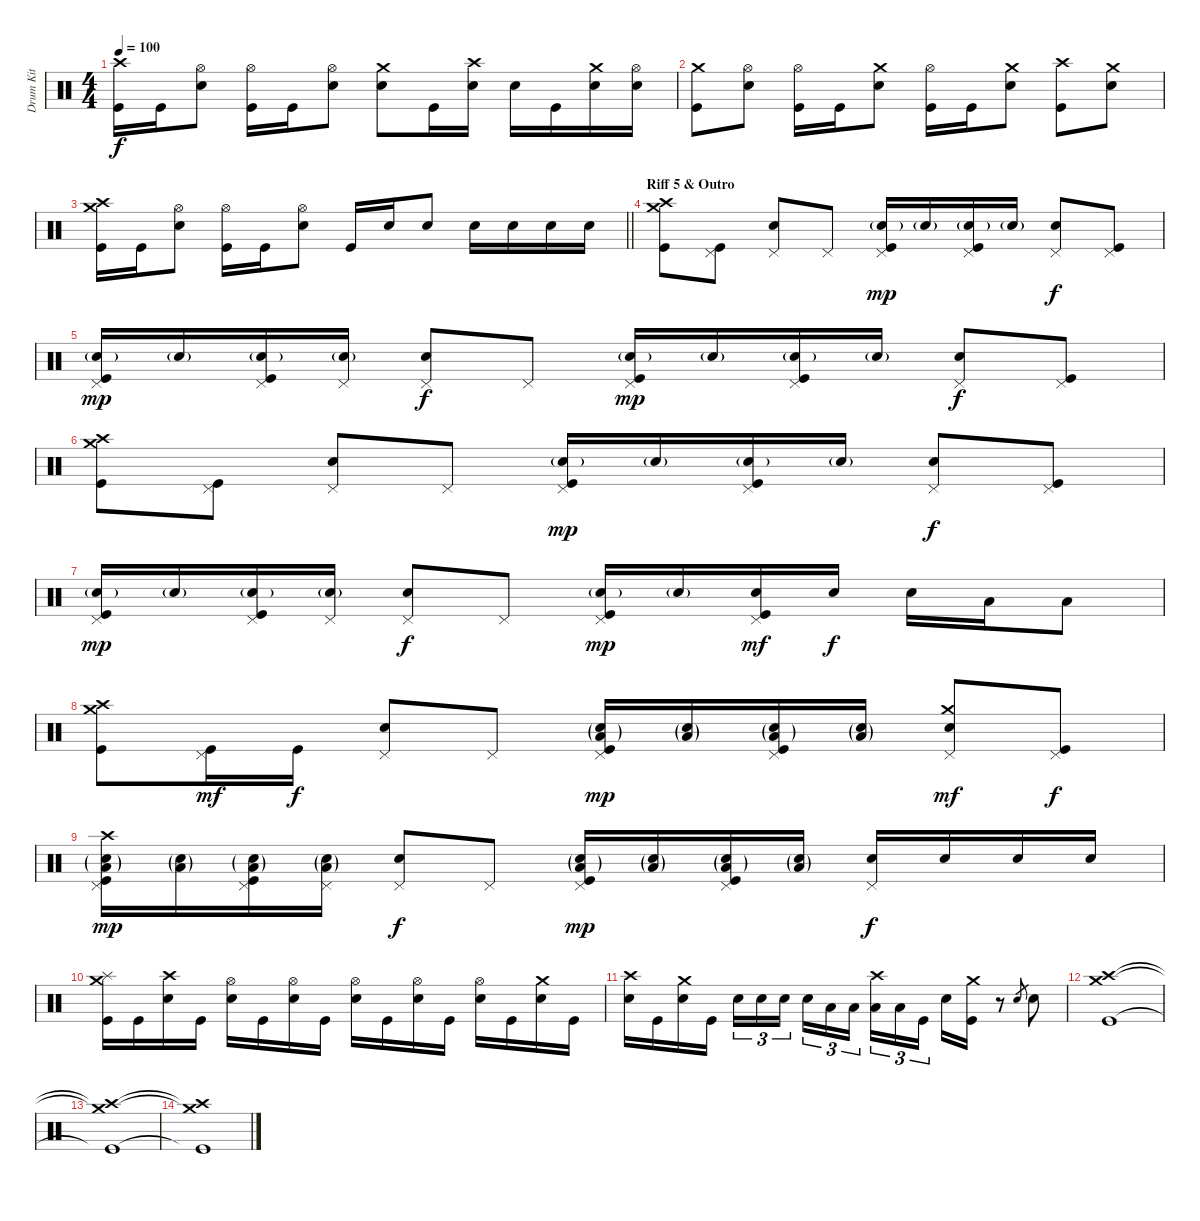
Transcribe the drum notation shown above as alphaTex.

\track ("Drum Kit" "Drum Kit") {instrument percussion}
\staff {score}
\articulation defaults
\ts (4 4)
\tempo 100
\clef neutral
\ks c
("Crash high (hit)" "Kick (hit)").16{dy f} "Kick (hit)".16 ("Hi-Hat (open)" "Electric Snare (hit)").8 ("Hi-Hat (open)" "Kick (hit)").16 "Kick (hit)".16 ("Hi-Hat (open)" "Electric Snare (hit)").8 ("Crash medium (hit)" "Electric Snare (hit)").8 "Kick (hit)".16 ("Crash high (hit)" "Electric Snare (hit)").16 "Electric Snare (hit)".16 "Kick (hit)".16 ("Crash medium (hit)" "Electric Snare (hit)").16 ("Hi-Hat (open)" "Electric Snare (hit)").16 |
("Crash medium (hit)" "Kick (hit)").8 ("Hi-Hat (open)" "Electric Snare (hit)").8 ("Hi-Hat (open)" "Kick (hit)").16 "Kick (hit)".16 ("Crash medium (hit)" "Electric Snare (hit)").8 ("Hi-Hat (open)" "Kick (hit)").16 "Kick (hit)".16 ("Crash medium (hit)" "Electric Snare (hit)").8 ("Crash high (hit)" "Kick (hit)").8 ("Crash medium (hit)" "Electric Snare (hit)").8 |
\barLineRight lightlight
("Crash high (hit)" "Crash medium (hit)" "Kick (hit)").16 "Kick (hit)".16 ("Hi-Hat (open)" "Electric Snare (hit)").8 ("Hi-Hat (open)" "Kick (hit)").16 "Kick (hit)".16 ("Hi-Hat (open)" "Electric Snare (hit)").8 "Kick (hit)".16 "Electric Snare (hit)".16 "Electric Snare (hit)".8 "Electric Snare (hit)".16 "Electric Snare (hit)".16 "Electric Snare (hit)".16 "Electric Snare (hit)".16 |
\section ("" "Riff 5 & Outro")
("Crash high (hit)" "Crash medium (hit)" "Kick (hit)").8 ("Pedal Hi-Hat (hit)" "Kick (hit)").8 ("Pedal Hi-Hat (hit)" "Electric Snare (hit)").8 "Pedal Hi-Hat (hit)".8 ("Pedal Hi-Hat (hit)" "Electric Snare (hit)"{g} "Kick (hit)").16{dy mp} "Electric Snare (hit)"{g}.16 ("Pedal Hi-Hat (hit)" "Electric Snare (hit)"{g} "Kick (hit)").16 "Electric Snare (hit)"{g}.16 ("Pedal Hi-Hat (hit)" "Electric Snare (hit)").8{dy f} ("Pedal Hi-Hat (hit)" "Kick (hit)").8 |
("Pedal Hi-Hat (hit)" "Electric Snare (hit)"{g} "Kick (hit)").16{dy mp} "Electric Snare (hit)"{g}.16 ("Pedal Hi-Hat (hit)" "Electric Snare (hit)"{g} "Kick (hit)").16 ("Pedal Hi-Hat (hit)" "Electric Snare (hit)"{g}).16 ("Pedal Hi-Hat (hit)" "Electric Snare (hit)").8{dy f} "Pedal Hi-Hat (hit)".8 ("Pedal Hi-Hat (hit)" "Electric Snare (hit)"{g} "Kick (hit)").16{dy mp} "Electric Snare (hit)"{g}.16 ("Pedal Hi-Hat (hit)" "Electric Snare (hit)"{g} "Kick (hit)").16 "Electric Snare (hit)"{g}.16 ("Pedal Hi-Hat (hit)" "Electric Snare (hit)").8{dy f} ("Pedal Hi-Hat (hit)" "Kick (hit)").8 |
("Crash high (hit)" "Crash medium (hit)" "Kick (hit)").8 ("Pedal Hi-Hat (hit)" "Kick (hit)").8 ("Pedal Hi-Hat (hit)" "Electric Snare (hit)").8 "Pedal Hi-Hat (hit)".8 ("Pedal Hi-Hat (hit)" "Electric Snare (hit)"{g} "Kick (hit)").16{dy mp} "Electric Snare (hit)"{g}.16 ("Pedal Hi-Hat (hit)" "Electric Snare (hit)"{g} "Kick (hit)").16 "Electric Snare (hit)"{g}.16 ("Pedal Hi-Hat (hit)" "Electric Snare (hit)").8{dy f} ("Pedal Hi-Hat (hit)" "Kick (hit)").8 |
("Pedal Hi-Hat (hit)" "Electric Snare (hit)"{g} "Kick (hit)").16{dy mp} "Electric Snare (hit)"{g}.16 ("Pedal Hi-Hat (hit)" "Electric Snare (hit)"{g} "Kick (hit)").16 ("Pedal Hi-Hat (hit)" "Electric Snare (hit)"{g}).16 ("Pedal Hi-Hat (hit)" "Electric Snare (hit)").8{dy f} "Pedal Hi-Hat (hit)".8 ("Pedal Hi-Hat (hit)" "Electric Snare (hit)"{g} "Kick (hit)").16{dy mp} "Electric Snare (hit)"{g}.16 ("Pedal Hi-Hat (hit)" "Electric Snare (hit)" "Kick (hit)").16{dy mf} "Electric Snare (hit)".16{dy f} "Electric Snare (hit)".16 "Low Tom (hit)".16 "Low Tom (hit)".8 |
("Crash high (hit)" "Crash medium (hit)" "Kick (hit)").8 ("Pedal Hi-Hat (hit)" "Kick (hit)").16{dy mf} "Kick (hit)".16{dy f} ("Pedal Hi-Hat (hit)" "Electric Snare (hit)").8 "Pedal Hi-Hat (hit)".8 ("Pedal Hi-Hat (hit)" "Electric Snare (hit)"{g} "Low Tom (hit)"{g} "Kick (hit)").16{dy mp} ("Electric Snare (hit)"{g} "Low Tom (hit)"{g}).16 ("Pedal Hi-Hat (hit)" "Electric Snare (hit)"{g} "Low Tom (hit)"{g} "Kick (hit)").16 ("Electric Snare (hit)"{g} "Low Tom (hit)"{g}).16 ("Crash medium (hit)" "Pedal Hi-Hat (hit)" "Electric Snare (hit)").8{dy mf} ("Pedal Hi-Hat (hit)" "Kick (hit)").8{dy f} |
("Crash high (hit)" "Pedal Hi-Hat (hit)" "Electric Snare (hit)"{g} "Low Tom (hit)"{g} "Kick (hit)").16{dy mp} ("Electric Snare (hit)"{g} "Low Tom (hit)"{g}).16 ("Pedal Hi-Hat (hit)" "Electric Snare (hit)"{g} "Low Tom (hit)"{g} "Kick (hit)").16 ("Pedal Hi-Hat (hit)" "Electric Snare (hit)"{g} "Low Tom (hit)"{g}).16 ("Pedal Hi-Hat (hit)" "Electric Snare (hit)").8{dy f} "Pedal Hi-Hat (hit)".8 ("Pedal Hi-Hat (hit)" "Electric Snare (hit)"{g} "Low Tom (hit)"{g} "Kick (hit)").16{dy mp} ("Electric Snare (hit)"{g} "Low Tom (hit)"{g}).16 ("Pedal Hi-Hat (hit)" "Electric Snare (hit)"{g} "Low Tom (hit)"{g} "Kick (hit)").16 ("Electric Snare (hit)"{g} "Low Tom (hit)"{g}).16 ("Pedal Hi-Hat (hit)" "Electric Snare (hit)").16{dy f} "Electric Snare (hit)".16 "Electric Snare (hit)".16 "Electric Snare (hit)".16 |
("Crash medium (hit)" "Splash (hit)" "Kick (hit)").16 "Kick (hit)".16 ("Crash high (hit)" "Electric Snare (hit)").16 "Kick (hit)".16 ("Hi-Hat (open)" "Electric Snare (hit)").16 "Kick (hit)".16 ("Hi-Hat (open)" "Electric Snare (hit)").16 "Kick (hit)".16 ("Hi-Hat (open)" "Electric Snare (hit)").16 "Kick (hit)".16 ("Hi-Hat (open)" "Electric Snare (hit)").16 "Kick (hit)".16 ("Hi-Hat (open)" "Electric Snare (hit)").16 "Kick (hit)".16 ("Crash medium (hit)" "Electric Snare (hit)").16 "Kick (hit)".16 |
("Crash high (hit)" "Electric Snare (hit)").16 "Kick (hit)".16 ("Crash medium (hit)" "Electric Snare (hit)").16 "Kick (hit)".16 "Electric Snare (hit)".16{tu (3 2)} "Electric Snare (hit)".16{tu (3 2)} "Electric Snare (hit)".16{tu (3 2) beam splitsecondary} "Electric Snare (hit)".16{tu (3 2)} "Low Tom (hit)".16{tu (3 2)} "Low Tom (hit)".16{tu (3 2)} ("Crash high (hit)" "Low Tom (hit)").16{tu (3 2)} "Low Tom (hit)".16{tu (3 2)} "Kick (hit)".16{tu (3 2) beam splitsecondary} "Electric Snare (hit)".16 ("Crash medium (hit)" "Kick (hit)").16 r.8 "Electric Snare (hit)".8{gr} "Electric Snare (hit)".8 |
("Crash medium (hit)" "Crash high (hit)" "Kick (hit)").1 |
("Crash medium (hit)"{t} "Crash high (hit)"{t} "Kick (hit)"{t}).1 |
("Crash medium (hit)"{t} "Crash high (hit)"{t} "Kick (hit)"{t}).1
